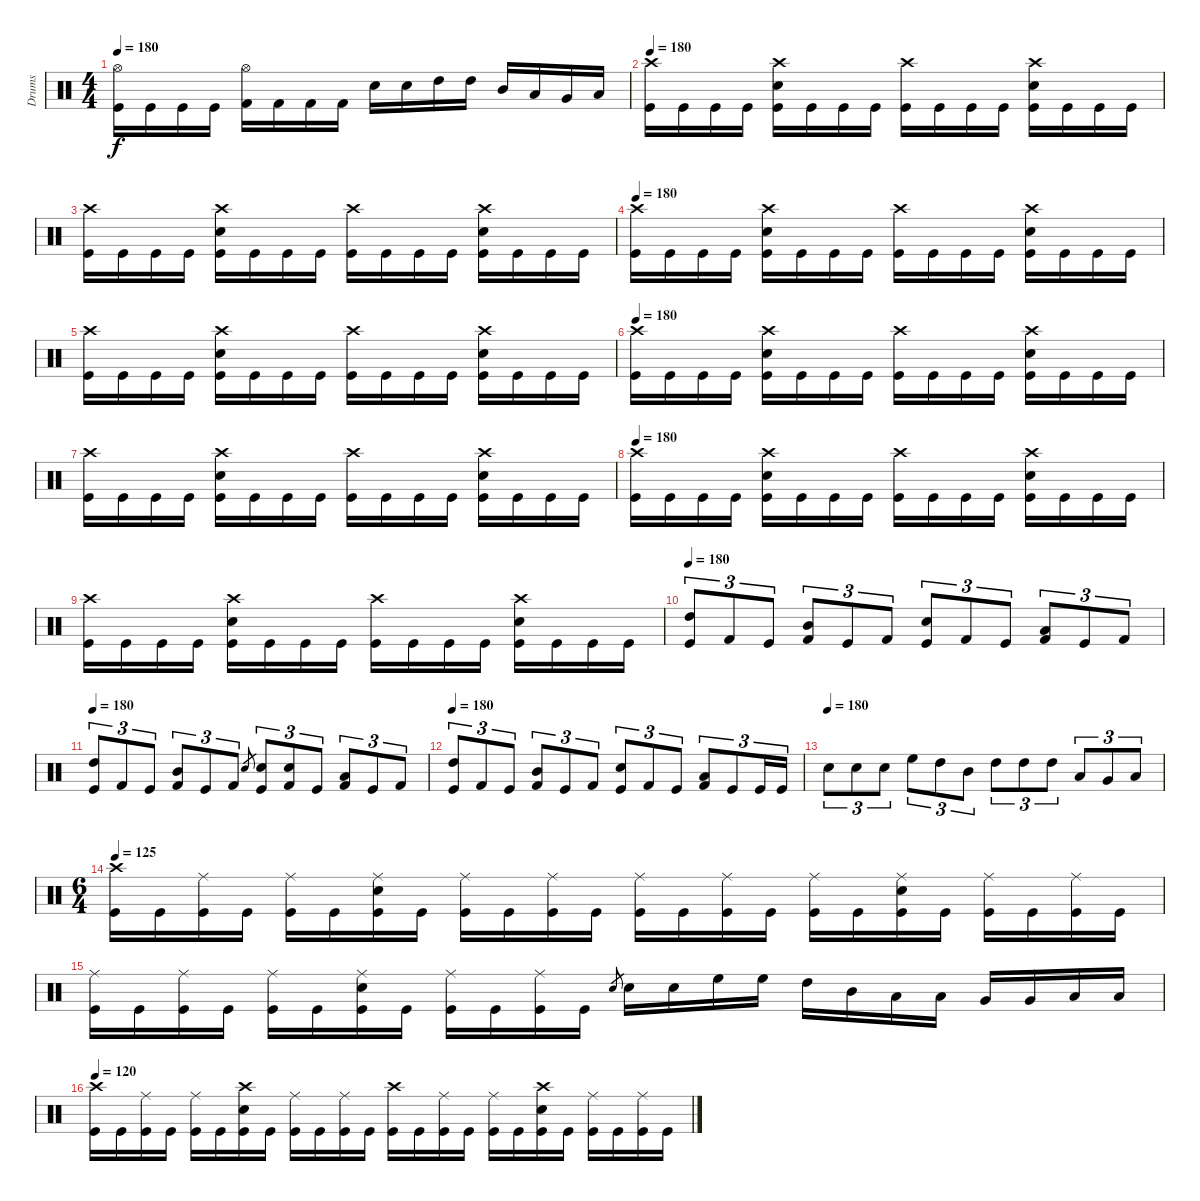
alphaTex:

\track ("Drums" "Drums") {instrument percussion}
\staff {score}
\articulation defaults
\ts (4 4)
\tempo 180
\clef neutral
\ks c
("Kick (hit)" "Hi-Hat (open)").16{dy f} "Kick (hit)".16 "Kick (hit)".16 "Kick (hit)".16 ("Kick (hit) 2" "Hi-Hat (open)").16 "Kick (hit) 2".16 "Kick (hit) 2".16 "Kick (hit) 2".16 "Electric Snare (hit)".16 "Electric Snare (hit)".16 "High Tom (hit)".16 "High Tom (hit)".16 "Mid Tom (hit)".16 "Low Tom (hit)".16 "Very Low Tom (hit)".16 "Low Floor Tom (hit)".16 |
\tempo 180
("Kick (hit)" "Crash high (hit)").16 "Kick (hit)".16 "Kick (hit)".16 "Kick (hit)".16 ("Kick (hit)" "Electric Snare (hit)" "Crash high (hit)").16 "Kick (hit)".16 "Kick (hit)".16 "Kick (hit)".16 ("Kick (hit)" "Crash high (hit)").16 "Kick (hit)".16 "Kick (hit)".16 "Kick (hit)".16 ("Kick (hit)" "Electric Snare (hit)" "Crash high (hit)").16 "Kick (hit)".16 "Kick (hit)".16 "Kick (hit)".16 |
("Kick (hit)" "Crash high (hit)").16 "Kick (hit)".16 "Kick (hit)".16 "Kick (hit)".16 ("Kick (hit)" "Electric Snare (hit)" "Crash high (hit)").16 "Kick (hit)".16 "Kick (hit)".16 "Kick (hit)".16 ("Kick (hit)" "Crash high (hit)").16 "Kick (hit)".16 "Kick (hit)".16 "Kick (hit)".16 ("Kick (hit)" "Electric Snare (hit)" "Crash high (hit)").16 "Kick (hit)".16 "Kick (hit)".16 "Kick (hit)".16 |
\tempo 180
("Kick (hit)" "Crash high (hit)").16 "Kick (hit)".16 "Kick (hit)".16 "Kick (hit)".16 ("Kick (hit)" "Electric Snare (hit)" "Crash high (hit)").16 "Kick (hit)".16 "Kick (hit)".16 "Kick (hit)".16 ("Kick (hit)" "Crash high (hit)").16 "Kick (hit)".16 "Kick (hit)".16 "Kick (hit)".16 ("Kick (hit)" "Electric Snare (hit)" "Crash high (hit)").16 "Kick (hit)".16 "Kick (hit)".16 "Kick (hit)".16 |
("Kick (hit)" "Crash high (hit)").16 "Kick (hit)".16 "Kick (hit)".16 "Kick (hit)".16 ("Kick (hit)" "Electric Snare (hit)" "Crash high (hit)").16 "Kick (hit)".16 "Kick (hit)".16 "Kick (hit)".16 ("Kick (hit)" "Crash high (hit)").16 "Kick (hit)".16 "Kick (hit)".16 "Kick (hit)".16 ("Kick (hit)" "Electric Snare (hit)" "Crash high (hit)").16 "Kick (hit)".16 "Kick (hit)".16 "Kick (hit)".16 |
\tempo 180
("Kick (hit)" "Crash high (hit)").16 "Kick (hit)".16 "Kick (hit)".16 "Kick (hit)".16 ("Kick (hit)" "Electric Snare (hit)" "Crash high (hit)").16 "Kick (hit)".16 "Kick (hit)".16 "Kick (hit)".16 ("Kick (hit)" "Crash high (hit)").16 "Kick (hit)".16 "Kick (hit)".16 "Kick (hit)".16 ("Kick (hit)" "Electric Snare (hit)" "Crash high (hit)").16 "Kick (hit)".16 "Kick (hit)".16 "Kick (hit)".16 |
("Kick (hit)" "Crash high (hit)").16 "Kick (hit)".16 "Kick (hit)".16 "Kick (hit)".16 ("Kick (hit)" "Electric Snare (hit)" "Crash high (hit)").16 "Kick (hit)".16 "Kick (hit)".16 "Kick (hit)".16 ("Kick (hit)" "Crash high (hit)").16 "Kick (hit)".16 "Kick (hit)".16 "Kick (hit)".16 ("Kick (hit)" "Electric Snare (hit)" "Crash high (hit)").16 "Kick (hit)".16 "Kick (hit)".16 "Kick (hit)".16 |
\tempo 180
("Kick (hit)" "Crash high (hit)").16 "Kick (hit)".16 "Kick (hit)".16 "Kick (hit)".16 ("Kick (hit)" "Electric Snare (hit)" "Crash high (hit)").16 "Kick (hit)".16 "Kick (hit)".16 "Kick (hit)".16 ("Kick (hit)" "Crash high (hit)").16 "Kick (hit)".16 "Kick (hit)".16 "Kick (hit)".16 ("Kick (hit)" "Electric Snare (hit)" "Crash high (hit)").16 "Kick (hit)".16 "Kick (hit)".16 "Kick (hit)".16 |
("Kick (hit)" "Crash high (hit)").16 "Kick (hit)".16 "Kick (hit)".16 "Kick (hit)".16 ("Kick (hit)" "Electric Snare (hit)" "Crash high (hit)").16 "Kick (hit)".16 "Kick (hit)".16 "Kick (hit)".16 ("Kick (hit)" "Crash high (hit)").16 "Kick (hit)".16 "Kick (hit)".16 "Kick (hit)".16 ("Kick (hit)" "Electric Snare (hit)" "Crash high (hit)").16 "Kick (hit)".16 "Kick (hit)".16 "Kick (hit)".16 |
\tempo 180
("Kick (hit)" "High Tom (hit)").8{tu (3 2)} "Kick (hit) 2".8{tu (3 2)} "Kick (hit)".8{tu (3 2)} ("Kick (hit) 2" "Mid Tom (hit)").8{tu (3 2)} "Kick (hit)".8{tu (3 2)} "Kick (hit) 2".8{tu (3 2)} ("Kick (hit)" "Electric Snare (hit)").8{tu (3 2)} "Kick (hit) 2".8{tu (3 2)} "Kick (hit)".8{tu (3 2)} ("Kick (hit) 2" "Low Tom (hit)").8{tu (3 2)} "Kick (hit)".8{tu (3 2)} "Kick (hit) 2".8{tu (3 2)} |
\tempo 180
("Kick (hit)" "High Tom (hit)").8{tu (3 2)} "Kick (hit) 2".8{tu (3 2)} "Kick (hit)".8{tu (3 2)} ("Kick (hit) 2" "Mid Tom (hit)").8{tu (3 2)} "Kick (hit)".8{tu (3 2)} "Kick (hit) 2".8{tu (3 2)} "Electric Snare (hit)".8{gr} ("Kick (hit)" "Electric Snare (hit)").8{tu (3 2)} ("Kick (hit) 2" "Electric Snare (hit)").8{tu (3 2)} "Kick (hit)".8{tu (3 2)} ("Kick (hit) 2" "Low Tom (hit)").8{tu (3 2)} "Kick (hit)".8{tu (3 2)} "Kick (hit) 2".8{tu (3 2)} |
\tempo 180
("Kick (hit)" "High Tom (hit)").8{tu (3 2)} "Kick (hit) 2".8{tu (3 2)} "Kick (hit)".8{tu (3 2)} ("Kick (hit) 2" "Mid Tom (hit)").8{tu (3 2)} "Kick (hit)".8{tu (3 2)} "Kick (hit) 2".8{tu (3 2)} ("Kick (hit)" "Electric Snare (hit)").8{tu (3 2)} "Kick (hit) 2".8{tu (3 2)} "Kick (hit)".8{tu (3 2)} ("Kick (hit) 2" "Low Tom (hit)").8{tu (3 2)} "Kick (hit)".8{tu (3 2)} "Kick (hit)".16{tu (3 2)} "Kick (hit)".16{tu (3 2)} |
\tempo (180)
"Electric Snare (hit)".8{tu (3 2)} "Electric Snare (hit)".8{tu (3 2)} "Electric Snare (hit)".8{tu (3 2)} "High Floor Tom (hit)".8{tu (3 2)} "High Tom (hit)".8{tu (3 2)} "Mid Tom (hit)".8{tu (3 2)} "High Tom (hit)".8{tu (3 2)} "High Tom (hit)".8{tu (3 2)} "High Tom (hit)".8{tu (3 2)} "Low Tom (hit)".8{tu (3 2)} "Very Low Tom (hit)".8{tu (3 2)} "Low Floor Tom (hit)".8{tu (3 2)} |
\ts (6 4)
\tempo 125
("Kick (hit)" "Crash high (hit)").16 "Kick (hit)".16 ("Kick (hit)" "Ride (middle)").16 "Kick (hit)".16 ("Kick (hit)" "Ride (middle)").16 "Kick (hit)".16 ("Kick (hit)" "Ride (middle)" "Electric Snare (hit)").16 "Kick (hit)".16 ("Kick (hit)" "Ride (middle)").16 "Kick (hit)".16 ("Kick (hit)" "Ride (middle)").16 "Kick (hit)".16 ("Kick (hit)" "Ride (middle)").16 "Kick (hit)".16 ("Kick (hit)" "Ride (middle)").16 "Kick (hit)".16 ("Kick (hit)" "Ride (middle)").16 "Kick (hit)".16 ("Kick (hit)" "Ride (middle)" "Electric Snare (hit)").16 "Kick (hit)".16 ("Kick (hit)" "Ride (middle)").16 "Kick (hit)".16 ("Kick (hit)" "Ride (middle)").16 "Kick (hit)".16 |
("Kick (hit)" "Ride (middle)").16 "Kick (hit)".16 ("Kick (hit)" "Ride (middle)").16 "Kick (hit)".16 ("Kick (hit)" "Ride (middle)").16 "Kick (hit)".16 ("Kick (hit)" "Ride (middle)" "Electric Snare (hit)").16 "Kick (hit)".16 ("Kick (hit)" "Ride (middle)").16 "Kick (hit)".16 ("Kick (hit)" "Ride (middle)").16 "Kick (hit)".16 "Electric Snare (hit)".8{gr} "Electric Snare (hit)".16 "Electric Snare (hit)".16 "High Floor Tom (hit)".16 "High Floor Tom (hit)".16 "High Tom (hit)".16 "Mid Tom (hit)".16 "Low Tom (hit)".16 "Low Tom (hit)".16 "Very Low Tom (hit)".16 "Very Low Tom (hit)".16 "Low Floor Tom (hit)".16 "Low Floor Tom (hit)".16 |
\tempo 120
("Kick (hit)" "Crash high (hit)").16 "Kick (hit)".16 ("Kick (hit)" "Ride (middle)").16 "Kick (hit)".16 ("Kick (hit)" "Ride (middle)").16 "Kick (hit)".16 ("Kick (hit)" "Electric Snare (hit)" "Crash high (hit)").16 "Kick (hit)".16 ("Kick (hit)" "Ride (middle)").16 "Kick (hit)".16 ("Kick (hit)" "Ride (middle)").16 "Kick (hit)".16 ("Kick (hit)" "Crash high (hit)").16 "Kick (hit)".16 ("Kick (hit)" "Ride (middle)").16 "Kick (hit)".16 ("Kick (hit)" "Ride (middle)").16 "Kick (hit)".16 ("Kick (hit)" "Electric Snare (hit)" "Crash high (hit)").16 "Kick (hit)".16 ("Kick (hit)" "Ride (middle)").16 "Kick (hit)".16 ("Kick (hit)" "Ride (middle)").16 "Kick (hit)".16
